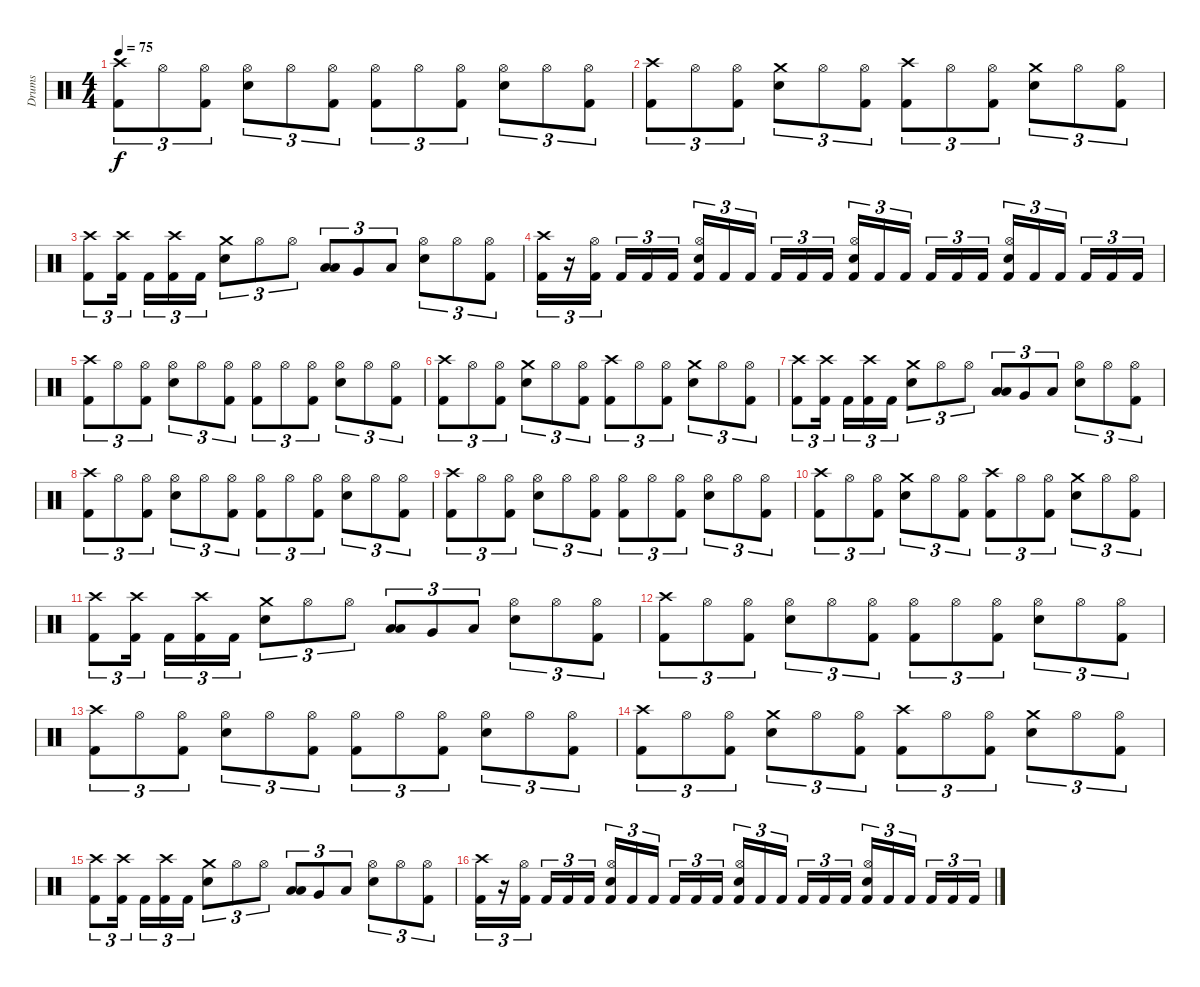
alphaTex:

\track ("Drums" "Drums") {instrument percussion}
\staff {score}
\articulation defaults
\ts (4 4)
\tempo 75
\clef neutral
\ks c
("Crash high (hit)" "Kick (hit) 2").8{tu (3 2) dy f} "Hi-Hat (open)".8{tu (3 2)} ("Hi-Hat (open)" "Kick (hit) 2").8{tu (3 2)} ("Hi-Hat (open)" "Electric Snare (hit)").8{tu (3 2)} "Hi-Hat (open)".8{tu (3 2)} ("Hi-Hat (open)" "Kick (hit) 2").8{tu (3 2)} ("Hi-Hat (open)" "Kick (hit) 2").8{tu (3 2)} "Hi-Hat (open)".8{tu (3 2)} ("Hi-Hat (open)" "Kick (hit) 2").8{tu (3 2)} ("Hi-Hat (open)" "Electric Snare (hit)").8{tu (3 2)} "Hi-Hat (open)".8{tu (3 2)} ("Hi-Hat (open)" "Kick (hit) 2").8{tu (3 2)} |
("Crash high (hit)" "Kick (hit) 2").8{tu (3 2)} "Hi-Hat (open)".8{tu (3 2)} ("Hi-Hat (open)" "Kick (hit) 2").8{tu (3 2)} ("Crash medium (hit)" "Electric Snare (hit)").8{tu (3 2)} "Hi-Hat (open)".8{tu (3 2)} ("Hi-Hat (open)" "Kick (hit) 2").8{tu (3 2)} ("Crash high (hit)" "Kick (hit) 2").8{tu (3 2)} "Hi-Hat (open)".8{tu (3 2)} ("Hi-Hat (open)" "Kick (hit) 2").8{tu (3 2)} ("Crash medium (hit)" "Electric Snare (hit)").8{tu (3 2)} "Hi-Hat (open)".8{tu (3 2)} ("Hi-Hat (open)" "Kick (hit) 2").8{tu (3 2)} |
("Crash high (hit)" "Kick (hit) 2").8{tu (3 2)} ("Crash high (hit)" "Kick (hit) 2").16{tu (3 2)} "Kick (hit) 2".16{tu (3 2)} ("Crash high (hit)" "Kick (hit) 2").16{tu (3 2)} "Kick (hit) 2".16{tu (3 2)} ("Crash medium (hit)" "Electric Snare (hit)").8{tu (3 2)} "Hi-Hat (open)".8{tu (3 2)} "Hi-Hat (open)".8{tu (3 2)} ("Low Tom (hit)" "Low Tom (hit)").8{tu (3 2) bu 60} "Very Low Tom (hit)".8{tu (3 2)} "Low Floor Tom (hit)".8{tu (3 2)} ("Hi-Hat (open)" "Electric Snare (hit)").8{tu (3 2)} "Hi-Hat (open)".8{tu (3 2)} ("Hi-Hat (open)" "Kick (hit) 2").8{tu (3 2)} |
("Crash high (hit)" "Kick (hit) 2").16{tu (3 2)} r.16{tu (3 2)} ("Hi-Hat (open)" "Kick (hit) 2").16{tu (3 2)} "Kick (hit) 2".16{tu (3 2)} "Kick (hit) 2".16{tu (3 2)} "Kick (hit) 2".16{tu (3 2)} ("Hi-Hat (open)" "Electric Snare (hit)" "Kick (hit) 2").16{tu (3 2)} "Kick (hit) 2".16{tu (3 2)} "Kick (hit) 2".16{tu (3 2)} "Kick (hit) 2".16{tu (3 2)} "Kick (hit) 2".16{tu (3 2)} "Kick (hit) 2".16{tu (3 2)} ("Hi-Hat (open)" "Electric Snare (hit)" "Kick (hit) 2").16{tu (3 2)} "Kick (hit) 2".16{tu (3 2)} "Kick (hit) 2".16{tu (3 2)} "Kick (hit) 2".16{tu (3 2)} "Kick (hit) 2".16{tu (3 2)} "Kick (hit) 2".16{tu (3 2)} ("Hi-Hat (open)" "Electric Snare (hit)" "Kick (hit) 2").16{tu (3 2)} "Kick (hit) 2".16{tu (3 2)} "Kick (hit) 2".16{tu (3 2)} "Kick (hit) 2".16{tu (3 2)} "Kick (hit) 2".16{tu (3 2)} "Kick (hit) 2".16{tu (3 2)} |
("Crash high (hit)" "Kick (hit) 2").8{tu (3 2)} "Hi-Hat (open)".8{tu (3 2)} ("Hi-Hat (open)" "Kick (hit) 2").8{tu (3 2)} ("Hi-Hat (open)" "Electric Snare (hit)").8{tu (3 2)} "Hi-Hat (open)".8{tu (3 2)} ("Hi-Hat (open)" "Kick (hit) 2").8{tu (3 2)} ("Hi-Hat (open)" "Kick (hit) 2").8{tu (3 2)} "Hi-Hat (open)".8{tu (3 2)} ("Hi-Hat (open)" "Kick (hit) 2").8{tu (3 2)} ("Hi-Hat (open)" "Electric Snare (hit)").8{tu (3 2)} "Hi-Hat (open)".8{tu (3 2)} ("Hi-Hat (open)" "Kick (hit) 2").8{tu (3 2)} |
("Crash high (hit)" "Kick (hit) 2").8{tu (3 2)} "Hi-Hat (open)".8{tu (3 2)} ("Hi-Hat (open)" "Kick (hit) 2").8{tu (3 2)} ("Crash medium (hit)" "Electric Snare (hit)").8{tu (3 2)} "Hi-Hat (open)".8{tu (3 2)} ("Hi-Hat (open)" "Kick (hit) 2").8{tu (3 2)} ("Crash high (hit)" "Kick (hit) 2").8{tu (3 2)} "Hi-Hat (open)".8{tu (3 2)} ("Hi-Hat (open)" "Kick (hit) 2").8{tu (3 2)} ("Crash medium (hit)" "Electric Snare (hit)").8{tu (3 2)} "Hi-Hat (open)".8{tu (3 2)} ("Hi-Hat (open)" "Kick (hit) 2").8{tu (3 2)} |
("Crash high (hit)" "Kick (hit) 2").8{tu (3 2)} ("Crash high (hit)" "Kick (hit) 2").16{tu (3 2)} "Kick (hit) 2".16{tu (3 2)} ("Crash high (hit)" "Kick (hit) 2").16{tu (3 2)} "Kick (hit) 2".16{tu (3 2)} ("Crash medium (hit)" "Electric Snare (hit)").8{tu (3 2)} "Hi-Hat (open)".8{tu (3 2)} "Hi-Hat (open)".8{tu (3 2)} ("Low Tom (hit)" "Low Tom (hit)").8{tu (3 2) bu 60} "Very Low Tom (hit)".8{tu (3 2)} "Low Floor Tom (hit)".8{tu (3 2)} ("Hi-Hat (open)" "Electric Snare (hit)").8{tu (3 2)} "Hi-Hat (open)".8{tu (3 2)} ("Hi-Hat (open)" "Kick (hit) 2").8{tu (3 2)} |
("Crash high (hit)" "Kick (hit) 2").8{tu (3 2)} "Hi-Hat (open)".8{tu (3 2)} ("Hi-Hat (open)" "Kick (hit) 2").8{tu (3 2)} ("Hi-Hat (open)" "Electric Snare (hit)").8{tu (3 2)} "Hi-Hat (open)".8{tu (3 2)} ("Hi-Hat (open)" "Kick (hit) 2").8{tu (3 2)} ("Hi-Hat (open)" "Kick (hit) 2").8{tu (3 2)} "Hi-Hat (open)".8{tu (3 2)} ("Hi-Hat (open)" "Kick (hit) 2").8{tu (3 2)} ("Hi-Hat (open)" "Electric Snare (hit)").8{tu (3 2)} "Hi-Hat (open)".8{tu (3 2)} ("Hi-Hat (open)" "Kick (hit) 2").8{tu (3 2)} |
("Crash high (hit)" "Kick (hit) 2").8{tu (3 2)} "Hi-Hat (open)".8{tu (3 2)} ("Hi-Hat (open)" "Kick (hit) 2").8{tu (3 2)} ("Hi-Hat (open)" "Electric Snare (hit)").8{tu (3 2)} "Hi-Hat (open)".8{tu (3 2)} ("Hi-Hat (open)" "Kick (hit) 2").8{tu (3 2)} ("Hi-Hat (open)" "Kick (hit) 2").8{tu (3 2)} "Hi-Hat (open)".8{tu (3 2)} ("Hi-Hat (open)" "Kick (hit) 2").8{tu (3 2)} ("Hi-Hat (open)" "Electric Snare (hit)").8{tu (3 2)} "Hi-Hat (open)".8{tu (3 2)} ("Hi-Hat (open)" "Kick (hit) 2").8{tu (3 2)} |
("Crash high (hit)" "Kick (hit) 2").8{tu (3 2)} "Hi-Hat (open)".8{tu (3 2)} ("Hi-Hat (open)" "Kick (hit) 2").8{tu (3 2)} ("Crash medium (hit)" "Electric Snare (hit)").8{tu (3 2)} "Hi-Hat (open)".8{tu (3 2)} ("Hi-Hat (open)" "Kick (hit) 2").8{tu (3 2)} ("Crash high (hit)" "Kick (hit) 2").8{tu (3 2)} "Hi-Hat (open)".8{tu (3 2)} ("Hi-Hat (open)" "Kick (hit) 2").8{tu (3 2)} ("Crash medium (hit)" "Electric Snare (hit)").8{tu (3 2)} "Hi-Hat (open)".8{tu (3 2)} ("Hi-Hat (open)" "Kick (hit) 2").8{tu (3 2)} |
("Crash high (hit)" "Kick (hit) 2").8{tu (3 2)} ("Crash high (hit)" "Kick (hit) 2").16{tu (3 2)} "Kick (hit) 2".16{tu (3 2)} ("Crash high (hit)" "Kick (hit) 2").16{tu (3 2)} "Kick (hit) 2".16{tu (3 2)} ("Crash medium (hit)" "Electric Snare (hit)").8{tu (3 2)} "Hi-Hat (open)".8{tu (3 2)} "Hi-Hat (open)".8{tu (3 2)} ("Low Tom (hit)" "Low Tom (hit)").8{tu (3 2) bu 60} "Very Low Tom (hit)".8{tu (3 2)} "Low Floor Tom (hit)".8{tu (3 2)} ("Hi-Hat (open)" "Electric Snare (hit)").8{tu (3 2)} "Hi-Hat (open)".8{tu (3 2)} ("Hi-Hat (open)" "Kick (hit) 2").8{tu (3 2)} |
("Crash high (hit)" "Kick (hit) 2").8{tu (3 2)} "Hi-Hat (open)".8{tu (3 2)} ("Hi-Hat (open)" "Kick (hit) 2").8{tu (3 2)} ("Hi-Hat (open)" "Electric Snare (hit)").8{tu (3 2)} "Hi-Hat (open)".8{tu (3 2)} ("Hi-Hat (open)" "Kick (hit) 2").8{tu (3 2)} ("Hi-Hat (open)" "Kick (hit) 2").8{tu (3 2)} "Hi-Hat (open)".8{tu (3 2)} ("Hi-Hat (open)" "Kick (hit) 2").8{tu (3 2)} ("Hi-Hat (open)" "Electric Snare (hit)").8{tu (3 2)} "Hi-Hat (open)".8{tu (3 2)} ("Hi-Hat (open)" "Kick (hit) 2").8{tu (3 2)} |
("Crash high (hit)" "Kick (hit) 2").8{tu (3 2)} "Hi-Hat (open)".8{tu (3 2)} ("Hi-Hat (open)" "Kick (hit) 2").8{tu (3 2)} ("Hi-Hat (open)" "Electric Snare (hit)").8{tu (3 2)} "Hi-Hat (open)".8{tu (3 2)} ("Hi-Hat (open)" "Kick (hit) 2").8{tu (3 2)} ("Hi-Hat (open)" "Kick (hit) 2").8{tu (3 2)} "Hi-Hat (open)".8{tu (3 2)} ("Hi-Hat (open)" "Kick (hit) 2").8{tu (3 2)} ("Hi-Hat (open)" "Electric Snare (hit)").8{tu (3 2)} "Hi-Hat (open)".8{tu (3 2)} ("Hi-Hat (open)" "Kick (hit) 2").8{tu (3 2)} |
("Crash high (hit)" "Kick (hit) 2").8{tu (3 2)} "Hi-Hat (open)".8{tu (3 2)} ("Hi-Hat (open)" "Kick (hit) 2").8{tu (3 2)} ("Crash medium (hit)" "Electric Snare (hit)").8{tu (3 2)} "Hi-Hat (open)".8{tu (3 2)} ("Hi-Hat (open)" "Kick (hit) 2").8{tu (3 2)} ("Crash high (hit)" "Kick (hit) 2").8{tu (3 2)} "Hi-Hat (open)".8{tu (3 2)} ("Hi-Hat (open)" "Kick (hit) 2").8{tu (3 2)} ("Crash medium (hit)" "Electric Snare (hit)").8{tu (3 2)} "Hi-Hat (open)".8{tu (3 2)} ("Hi-Hat (open)" "Kick (hit) 2").8{tu (3 2)} |
("Crash high (hit)" "Kick (hit) 2").8{tu (3 2)} ("Crash high (hit)" "Kick (hit) 2").16{tu (3 2)} "Kick (hit) 2".16{tu (3 2)} ("Crash high (hit)" "Kick (hit) 2").16{tu (3 2)} "Kick (hit) 2".16{tu (3 2)} ("Crash medium (hit)" "Electric Snare (hit)").8{tu (3 2)} "Hi-Hat (open)".8{tu (3 2)} "Hi-Hat (open)".8{tu (3 2)} ("Low Tom (hit)" "Low Tom (hit)").8{tu (3 2) bu 60} "Very Low Tom (hit)".8{tu (3 2)} "Low Floor Tom (hit)".8{tu (3 2)} ("Hi-Hat (open)" "Electric Snare (hit)").8{tu (3 2)} "Hi-Hat (open)".8{tu (3 2)} ("Hi-Hat (open)" "Kick (hit) 2").8{tu (3 2)} |
("Crash high (hit)" "Kick (hit) 2").16{tu (3 2)} r.16{tu (3 2)} ("Hi-Hat (open)" "Kick (hit) 2").16{tu (3 2)} "Kick (hit) 2".16{tu (3 2)} "Kick (hit) 2".16{tu (3 2)} "Kick (hit) 2".16{tu (3 2)} ("Hi-Hat (open)" "Electric Snare (hit)" "Kick (hit) 2").16{tu (3 2)} "Kick (hit) 2".16{tu (3 2)} "Kick (hit) 2".16{tu (3 2)} "Kick (hit) 2".16{tu (3 2)} "Kick (hit) 2".16{tu (3 2)} "Kick (hit) 2".16{tu (3 2)} ("Hi-Hat (open)" "Electric Snare (hit)" "Kick (hit) 2").16{tu (3 2)} "Kick (hit) 2".16{tu (3 2)} "Kick (hit) 2".16{tu (3 2)} "Kick (hit) 2".16{tu (3 2)} "Kick (hit) 2".16{tu (3 2)} "Kick (hit) 2".16{tu (3 2)} ("Hi-Hat (open)" "Electric Snare (hit)" "Kick (hit) 2").16{tu (3 2)} "Kick (hit) 2".16{tu (3 2)} "Kick (hit) 2".16{tu (3 2)} "Kick (hit) 2".16{tu (3 2)} "Kick (hit) 2".16{tu (3 2)} "Kick (hit) 2".16{tu (3 2)}
